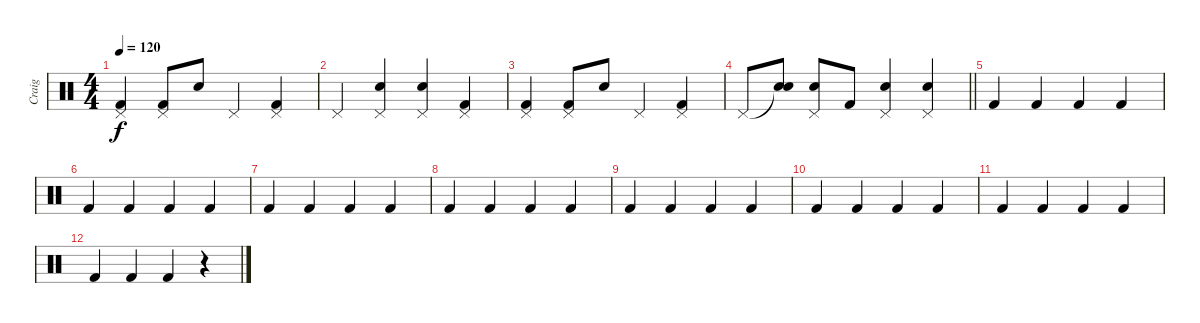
\track ("Craig" "Craig") {instrument percussion}
\staff {score}
\articulation defaults
\ts (4 4)
\tempo 120
\clef neutral
\ks c
("Pedal Hi-Hat (hit)" "Kick (hit) 2").4{dy f} ("Pedal Hi-Hat (hit)" "Kick (hit) 2").8 "Snare (hit) 2".8 "Pedal Hi-Hat (hit)".4 ("Pedal Hi-Hat (hit)" "Kick (hit) 2").4 |
"Pedal Hi-Hat (hit)".4 ("Pedal Hi-Hat (hit)" "Snare (hit) 2").4 ("Pedal Hi-Hat (hit)" "Snare (hit) 2").4 ("Pedal Hi-Hat (hit)" "Kick (hit) 2").4 |
("Pedal Hi-Hat (hit)" "Kick (hit) 2").4 ("Pedal Hi-Hat (hit)" "Kick (hit) 2").8 "Snare (hit) 2".8 "Pedal Hi-Hat (hit)".4 ("Pedal Hi-Hat (hit)" "Kick (hit) 2").4 |
\barLineRight lightlight "Pedal Hi-Hat (hit)".8
("Snare (hit)"{t} "Snare (hit) 2").8 ("Pedal Hi-Hat (hit)" "Snare (hit) 2").8 "Kick (hit) 2".8 ("Pedal Hi-Hat (hit)" "Snare (hit) 2").4 ("Pedal Hi-Hat (hit)" "Snare (hit) 2").4 |
"Kick (hit) 2".4 "Kick (hit) 2".4 "Kick (hit) 2".4 "Kick (hit) 2".4 |
"Kick (hit) 2".4 "Kick (hit) 2".4 "Kick (hit) 2".4 "Kick (hit) 2".4 |
"Kick (hit) 2".4 "Kick (hit) 2".4 "Kick (hit) 2".4 "Kick (hit) 2".4 |
"Kick (hit) 2".4 "Kick (hit) 2".4 "Kick (hit) 2".4 "Kick (hit) 2".4 |
"Kick (hit) 2".4 "Kick (hit) 2".4 "Kick (hit) 2".4 "Kick (hit) 2".4 |
"Kick (hit) 2".4 "Kick (hit) 2".4 "Kick (hit) 2".4 "Kick (hit) 2".4 |
"Kick (hit) 2".4 "Kick (hit) 2".4 "Kick (hit) 2".4 "Kick (hit) 2".4 |
"Kick (hit) 2".4 "Kick (hit) 2".4 "Kick (hit) 2".4 r.4
